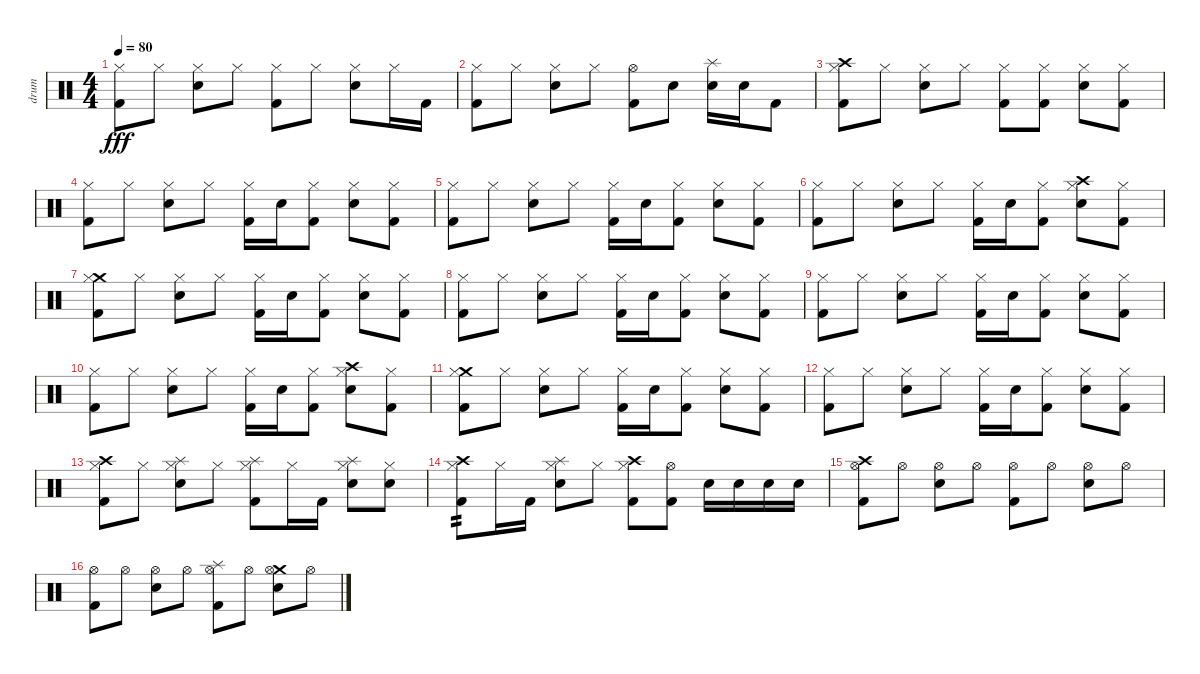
\track ("drum" "drum") {instrument percussion}
\staff {score}
\articulation defaults
\ts (4 4)
\tempo 80
\clef neutral
\ks c
("Hi-Hat (closed)" "Kick (hit) 2").8{dy fff} "Hi-Hat (closed)".8 ("Hi-Hat (closed)" "Electric Snare (hit)").8 "Hi-Hat (closed)".8 ("Hi-Hat (closed)" "Kick (hit) 2").8 "Hi-Hat (closed)".8 ("Hi-Hat (closed)" "Electric Snare (hit)").8 "Hi-Hat (closed)".16 "Kick (hit) 2".16 |
("Hi-Hat (closed)" "Kick (hit) 2").8 "Hi-Hat (closed)".8 ("Hi-Hat (closed)" "Electric Snare (hit)").8 "Hi-Hat (closed)".8 ("Hi-Hat (open)" "Kick (hit) 2").8 "Electric Snare (hit)".8 ("Splash (hit)" "Electric Snare (hit)").16 "Electric Snare (hit)".16 "Kick (hit) 2".8 |
("Crash high (hit)" "Hi-Hat (closed)" "Kick (hit) 2").8 "Hi-Hat (closed)".8 ("Hi-Hat (closed)" "Electric Snare (hit)").8 "Hi-Hat (closed)".8 ("Hi-Hat (closed)" "Kick (hit) 2").8 ("Hi-Hat (closed)" "Kick (hit) 2").8 ("Hi-Hat (closed)" "Electric Snare (hit)").8 ("Hi-Hat (closed)" "Kick (hit) 2").8 |
("Hi-Hat (closed)" "Kick (hit) 2").8 "Hi-Hat (closed)".8 ("Hi-Hat (closed)" "Electric Snare (hit)").8 "Hi-Hat (closed)".8 ("Hi-Hat (closed)" "Kick (hit) 2").16 "Electric Snare (hit)".16 ("Hi-Hat (closed)" "Kick (hit) 2").8 ("Hi-Hat (closed)" "Electric Snare (hit)").8 ("Hi-Hat (closed)" "Kick (hit) 2").8 |
("Hi-Hat (closed)" "Kick (hit) 2").8 "Hi-Hat (closed)".8 ("Hi-Hat (closed)" "Electric Snare (hit)").8 "Hi-Hat (closed)".8 ("Hi-Hat (closed)" "Kick (hit) 2").16 "Electric Snare (hit)".16 ("Hi-Hat (closed)" "Kick (hit) 2").8 ("Hi-Hat (closed)" "Electric Snare (hit)").8 ("Hi-Hat (closed)" "Kick (hit) 2").8 |
("Hi-Hat (closed)" "Kick (hit) 2").8 "Hi-Hat (closed)".8 ("Hi-Hat (closed)" "Electric Snare (hit)").8 "Hi-Hat (closed)".8 ("Hi-Hat (closed)" "Kick (hit) 2").16 "Electric Snare (hit)".16 ("Hi-Hat (closed)" "Kick (hit) 2").8 ("Crash high (hit)" "Hi-Hat (closed)" "Electric Snare (hit)").8 ("Hi-Hat (closed)" "Kick (hit) 2").8 |
("Crash medium (hit)" "Hi-Hat (closed)" "Kick (hit) 2").8 "Hi-Hat (closed)".8 ("Hi-Hat (closed)" "Electric Snare (hit)").8 "Hi-Hat (closed)".8 ("Hi-Hat (closed)" "Kick (hit) 2").16 "Electric Snare (hit)".16 ("Hi-Hat (closed)" "Kick (hit) 2").8 ("Hi-Hat (closed)" "Electric Snare (hit)").8 ("Hi-Hat (closed)" "Kick (hit) 2").8 |
("Hi-Hat (closed)" "Kick (hit) 2").8 "Hi-Hat (closed)".8 ("Hi-Hat (closed)" "Electric Snare (hit)").8 "Hi-Hat (closed)".8 ("Hi-Hat (closed)" "Kick (hit) 2").16 "Electric Snare (hit)".16 ("Hi-Hat (closed)" "Kick (hit) 2").8 ("Hi-Hat (closed)" "Electric Snare (hit)").8 ("Hi-Hat (closed)" "Kick (hit) 2").8 |
("Hi-Hat (closed)" "Kick (hit) 2").8 "Hi-Hat (closed)".8 ("Hi-Hat (closed)" "Electric Snare (hit)").8 "Hi-Hat (closed)".8 ("Hi-Hat (closed)" "Kick (hit) 2").16 "Electric Snare (hit)".16 ("Hi-Hat (closed)" "Kick (hit) 2").8 ("Hi-Hat (closed)" "Electric Snare (hit)").8 ("Hi-Hat (closed)" "Kick (hit) 2").8 |
("Hi-Hat (closed)" "Kick (hit) 2").8 "Hi-Hat (closed)".8 ("Hi-Hat (closed)" "Electric Snare (hit)").8 "Hi-Hat (closed)".8 ("Hi-Hat (closed)" "Kick (hit) 2").16 "Electric Snare (hit)".16 ("Hi-Hat (closed)" "Kick (hit) 2").8 ("Crash high (hit)" "Hi-Hat (closed)" "Electric Snare (hit)").8 ("Hi-Hat (closed)" "Kick (hit) 2").8 |
("Crash medium (hit)" "Hi-Hat (closed)" "Kick (hit) 2").8 "Hi-Hat (closed)".8 ("Hi-Hat (closed)" "Electric Snare (hit)").8 "Hi-Hat (closed)".8 ("Hi-Hat (closed)" "Kick (hit) 2").16 "Electric Snare (hit)".16 ("Hi-Hat (closed)" "Kick (hit) 2").8 ("Hi-Hat (closed)" "Electric Snare (hit)").8 ("Hi-Hat (closed)" "Kick (hit) 2").8 |
("Hi-Hat (closed)" "Kick (hit) 2").8 "Hi-Hat (closed)".8 ("Hi-Hat (closed)" "Electric Snare (hit)").8 "Hi-Hat (closed)".8 ("Hi-Hat (closed)" "Kick (hit) 2").16 "Electric Snare (hit)".16 ("Hi-Hat (closed)" "Kick (hit) 2").8 ("Hi-Hat (closed)" "Electric Snare (hit)").8 ("Hi-Hat (closed)" "Kick (hit) 2").8 |
("Crash high (hit)" "Hi-Hat (closed)" "Kick (hit) 2").8 "Hi-Hat (closed)".8 ("Splash (hit)" "Hi-Hat (closed)" "Electric Snare (hit)").8 "Hi-Hat (closed)".8 ("Splash (hit)" "Hi-Hat (closed)" "Kick (hit) 2").8 "Hi-Hat (closed)".16 "Kick (hit) 2".16 ("Splash (hit)" "Hi-Hat (closed)" "Electric Snare (hit)").8 ("Hi-Hat (closed)" "Electric Snare (hit)").8 |
("Crash high (hit)" "Hi-Hat (closed)" "Kick (hit) 2").8{tp 2} "Hi-Hat (closed)".16 "Kick (hit) 2".16 ("Splash (hit)" "Hi-Hat (closed)" "Electric Snare (hit)").8 "Hi-Hat (closed)".8 ("Crash high (hit)" "Hi-Hat (closed)" "Kick (hit) 2").8 ("Hi-Hat (open)" "Kick (hit) 2").8 "Electric Snare (hit)".16 "Electric Snare (hit)".16 "Electric Snare (hit)".16 "Electric Snare (hit)".16 |
("Crash high (hit)" "Hi-Hat (open)" "Kick (hit) 2").8 "Hi-Hat (open)".8 ("Hi-Hat (open)" "Electric Snare (hit)").8 "Hi-Hat (open)".8 ("Hi-Hat (open)" "Kick (hit) 2").8 "Hi-Hat (open)".8 ("Hi-Hat (open)" "Electric Snare (hit)").8 "Hi-Hat (open)".8 |
("Hi-Hat (open)" "Kick (hit) 2").8 "Hi-Hat (open)".8 ("Hi-Hat (open)" "Electric Snare (hit)").8 "Hi-Hat (open)".8 ("Splash (hit)" "Hi-Hat (open)" "Kick (hit) 2").8 "Hi-Hat (open)".8 ("Crash medium (hit)" "Hi-Hat (open)" "Electric Snare (hit)").8 "Hi-Hat (open)".8
